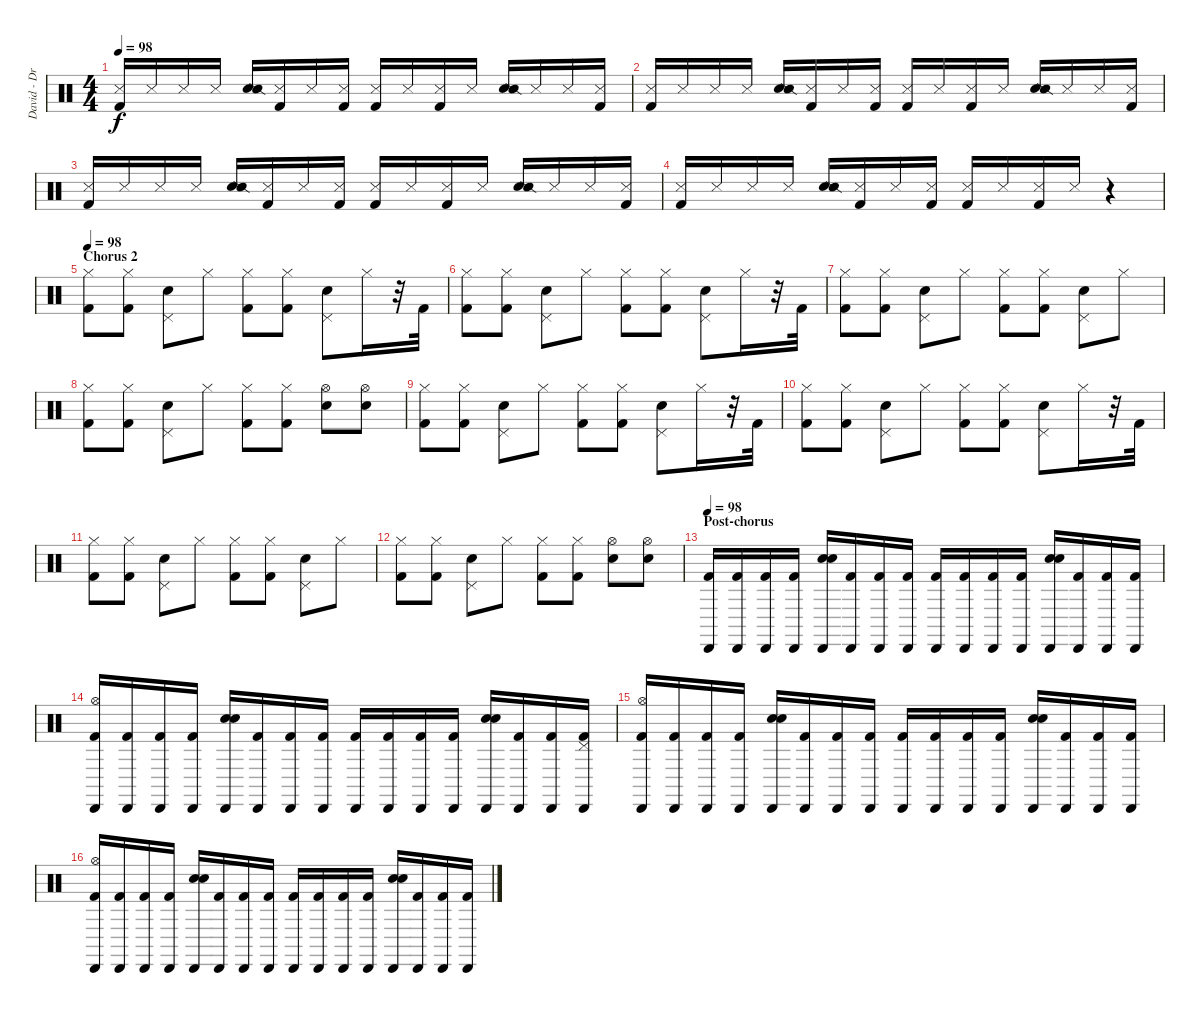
\track ("David - Drums" "David - Dr") {instrument percussion}
\staff {score}
\articulation defaults
\ts (4 4)
\tempo 98
\clef neutral
\ks c
("Kick (hit) 2" "Metronome (hit)").16{dy f} "Metronome (hit)".16 "Metronome (hit)".16 "Metronome (hit)".16 ("Hand Clap (hit)" "Snare (side stick) 2").16 ("Kick (hit) 2" "Metronome (hit)").16 "Metronome (hit)".16 ("Kick (hit) 2" "Metronome (hit)").16 ("Kick (hit) 2" "Metronome (hit)").16 "Metronome (hit)".16 ("Kick (hit) 2" "Metronome (hit)").16 "Metronome (hit)".16 ("Hand Clap (hit)" "Snare (side stick) 2").16 "Metronome (hit)".16 "Metronome (hit)".16 ("Kick (hit) 2" "Metronome (hit)").16 |
("Kick (hit) 2" "Metronome (hit)").16 "Metronome (hit)".16 "Metronome (hit)".16 "Metronome (hit)".16 ("Hand Clap (hit)" "Snare (side stick) 2").16 ("Kick (hit) 2" "Metronome (hit)").16 "Metronome (hit)".16 ("Kick (hit) 2" "Metronome (hit)").16 ("Kick (hit) 2" "Metronome (hit)").16 "Metronome (hit)".16 ("Kick (hit) 2" "Metronome (hit)").16 "Metronome (hit)".16 ("Hand Clap (hit)" "Snare (side stick) 2").16 "Metronome (hit)".16 "Metronome (hit)".16 ("Kick (hit) 2" "Metronome (hit)").16 |
("Kick (hit) 2" "Metronome (hit)").16 "Metronome (hit)".16 "Metronome (hit)".16 "Metronome (hit)".16 ("Hand Clap (hit)" "Snare (side stick) 2").16 ("Kick (hit) 2" "Metronome (hit)").16 "Metronome (hit)".16 ("Kick (hit) 2" "Metronome (hit)").16 ("Kick (hit) 2" "Metronome (hit)").16 "Metronome (hit)".16 ("Kick (hit) 2" "Metronome (hit)").16 "Metronome (hit)".16 ("Hand Clap (hit)" "Snare (side stick) 2").16 "Metronome (hit)".16 "Metronome (hit)".16 ("Kick (hit) 2" "Metronome (hit)").16 |
("Kick (hit) 2" "Metronome (hit)").16 "Metronome (hit)".16 "Metronome (hit)".16 "Metronome (hit)".16 ("Hand Clap (hit)" "Snare (side stick) 2").16 ("Kick (hit) 2" "Metronome (hit)").16 "Metronome (hit)".16 ("Kick (hit) 2" "Metronome (hit)").16 ("Kick (hit) 2" "Metronome (hit)").16 "Metronome (hit)".16 ("Kick (hit) 2" "Metronome (hit)").16 "Metronome (hit)".16 r.4 |
\section ("" "Chorus 2")
\tempo 98
("Hi-Hat (closed)" "Kick (hit) 2").8{volume 12} ("Hi-Hat (closed)" "Kick (hit) 2").8 ("Pedal Hi-Hat (hit)" "Snare (hit) 2").8 "Hi-Hat (closed)".8 ("Hi-Hat (closed)" "Kick (hit) 2").8 ("Hi-Hat (closed)" "Kick (hit) 2").8 ("Pedal Hi-Hat (hit)" "Snare (hit) 2").8 "Hi-Hat (closed)".16 r.32 "Kick (hit) 2".32 |
("Hi-Hat (closed)" "Kick (hit) 2").8 ("Hi-Hat (closed)" "Kick (hit) 2").8 ("Pedal Hi-Hat (hit)" "Snare (hit) 2").8 "Hi-Hat (closed)".8 ("Hi-Hat (closed)" "Kick (hit) 2").8 ("Hi-Hat (closed)" "Kick (hit) 2").8 ("Pedal Hi-Hat (hit)" "Snare (hit) 2").8 "Hi-Hat (closed)".16 r.32 "Kick (hit) 2".32 |
("Hi-Hat (closed)" "Kick (hit) 2").8 ("Hi-Hat (closed)" "Kick (hit) 2").8 ("Pedal Hi-Hat (hit)" "Snare (hit) 2").8 "Hi-Hat (closed)".8 ("Hi-Hat (closed)" "Kick (hit) 2").8 ("Hi-Hat (closed)" "Kick (hit) 2").8 ("Pedal Hi-Hat (hit)" "Snare (hit) 2").8 "Hi-Hat (closed)".8 |
("Hi-Hat (closed)" "Kick (hit) 2").8 ("Hi-Hat (closed)" "Kick (hit) 2").8 ("Pedal Hi-Hat (hit)" "Snare (hit) 2").8 "Hi-Hat (closed)".8 ("Hi-Hat (closed)" "Kick (hit) 2").8 ("Hi-Hat (closed)" "Kick (hit) 2").8 ("Hi-Hat (open)" "Snare (hit) 2").8 ("Hi-Hat (open)" "Snare (hit) 2").8 |
("Hi-Hat (closed)" "Kick (hit) 2").8 ("Hi-Hat (closed)" "Kick (hit) 2").8 ("Pedal Hi-Hat (hit)" "Snare (hit) 2").8 "Hi-Hat (closed)".8 ("Hi-Hat (closed)" "Kick (hit) 2").8 ("Hi-Hat (closed)" "Kick (hit) 2").8 ("Pedal Hi-Hat (hit)" "Snare (hit) 2").8 "Hi-Hat (closed)".16 r.32 "Kick (hit) 2".32 |
("Hi-Hat (closed)" "Kick (hit) 2").8 ("Hi-Hat (closed)" "Kick (hit) 2").8 ("Pedal Hi-Hat (hit)" "Snare (hit) 2").8 "Hi-Hat (closed)".8 ("Hi-Hat (closed)" "Kick (hit) 2").8 ("Hi-Hat (closed)" "Kick (hit) 2").8 ("Pedal Hi-Hat (hit)" "Snare (hit) 2").8 "Hi-Hat (closed)".16 r.32 "Kick (hit) 2".32 |
("Hi-Hat (closed)" "Kick (hit) 2").8 ("Hi-Hat (closed)" "Kick (hit) 2").8 ("Pedal Hi-Hat (hit)" "Snare (hit) 2").8 "Hi-Hat (closed)".8 ("Hi-Hat (closed)" "Kick (hit) 2").8 ("Hi-Hat (closed)" "Kick (hit) 2").8 ("Pedal Hi-Hat (hit)" "Snare (hit) 2").8 "Hi-Hat (closed)".8 |
("Hi-Hat (closed)" "Kick (hit) 2").8 ("Hi-Hat (closed)" "Kick (hit) 2").8 ("Pedal Hi-Hat (hit)" "Snare (hit) 2").8 "Hi-Hat (closed)".8 ("Hi-Hat (closed)" "Kick (hit) 2").8 ("Hi-Hat (closed)" "Kick (hit) 2").8 ("Hi-Hat (open)" "Snare (hit) 2").8 ("Hi-Hat (open)" "Snare (hit) 2").8 |
\section ("" "Post-chorus")
\tempo 98
("Cabasa (hit)" "Kick (hit) 2").16 ("Cabasa (hit)" "Kick (hit) 2").16 ("Cabasa (hit)" "Kick (hit) 2").16 ("Cabasa (hit)" "Kick (hit) 2").16 ("Cabasa (hit)" "Electric Snare (hit)" "Snare (hit) 2").16 ("Cabasa (hit)" "Kick (hit) 2").16 ("Cabasa (hit)" "Kick (hit) 2").16 ("Cabasa (hit)" "Kick (hit) 2").16 ("Cabasa (hit)" "Kick (hit) 2").16 ("Cabasa (hit)" "Kick (hit) 2").16 ("Cabasa (hit)" "Kick (hit) 2").16 ("Cabasa (hit)" "Kick (hit) 2").16 ("Cabasa (hit)" "Electric Snare (hit)" "Snare (hit) 2").16 ("Cabasa (hit)" "Kick (hit) 2").16 ("Cabasa (hit)" "Kick (hit) 2").16 ("Cabasa (hit)" "Kick (hit) 2").16 |
("Cabasa (hit)" "Hi-Hat (open)" "Kick (hit) 2").16{volume 16} ("Cabasa (hit)" "Kick (hit) 2").16 ("Cabasa (hit)" "Kick (hit) 2").16 ("Cabasa (hit)" "Kick (hit) 2").16 ("Cabasa (hit)" "Electric Snare (hit)" "Snare (hit) 2").16 ("Cabasa (hit)" "Kick (hit) 2").16 ("Cabasa (hit)" "Kick (hit) 2").16 ("Cabasa (hit)" "Kick (hit) 2").16 ("Cabasa (hit)" "Kick (hit) 2").16 ("Cabasa (hit)" "Kick (hit) 2").16 ("Cabasa (hit)" "Kick (hit) 2").16 ("Cabasa (hit)" "Kick (hit) 2").16 ("Cabasa (hit)" "Electric Snare (hit)" "Snare (hit) 2").16 ("Cabasa (hit)" "Kick (hit) 2").16 ("Cabasa (hit)" "Kick (hit) 2").16 ("Cabasa (hit)" "Pedal Hi-Hat (hit)" "Kick (hit) 2").16 |
("Cabasa (hit)" "Hi-Hat (open)" "Kick (hit) 2").16 ("Cabasa (hit)" "Kick (hit) 2").16 ("Cabasa (hit)" "Kick (hit) 2").16 ("Cabasa (hit)" "Kick (hit) 2").16 ("Cabasa (hit)" "Electric Snare (hit)" "Snare (hit) 2").16 ("Cabasa (hit)" "Kick (hit) 2").16 ("Cabasa (hit)" "Kick (hit) 2").16 ("Cabasa (hit)" "Kick (hit) 2").16 ("Cabasa (hit)" "Kick (hit) 2").16 ("Cabasa (hit)" "Kick (hit) 2").16 ("Cabasa (hit)" "Kick (hit) 2").16 ("Cabasa (hit)" "Kick (hit) 2").16 ("Cabasa (hit)" "Electric Snare (hit)" "Snare (hit) 2").16 ("Cabasa (hit)" "Kick (hit) 2").16 ("Cabasa (hit)" "Kick (hit) 2").16 ("Cabasa (hit)" "Kick (hit) 2").16 |
("Cabasa (hit)" "Hi-Hat (open)" "Kick (hit) 2").16 ("Cabasa (hit)" "Kick (hit) 2").16 ("Cabasa (hit)" "Kick (hit) 2").16 ("Cabasa (hit)" "Kick (hit) 2").16 ("Cabasa (hit)" "Electric Snare (hit)" "Snare (hit) 2").16 ("Cabasa (hit)" "Kick (hit) 2").16 ("Cabasa (hit)" "Kick (hit) 2").16 ("Cabasa (hit)" "Kick (hit) 2").16 ("Cabasa (hit)" "Kick (hit) 2").16 ("Cabasa (hit)" "Kick (hit) 2").16 ("Cabasa (hit)" "Kick (hit) 2").16 ("Cabasa (hit)" "Kick (hit) 2").16 ("Cabasa (hit)" "Electric Snare (hit)" "Snare (hit) 2").16 ("Cabasa (hit)" "Kick (hit) 2").16 ("Cabasa (hit)" "Kick (hit) 2").16 ("Cabasa (hit)" "Kick (hit) 2").16
